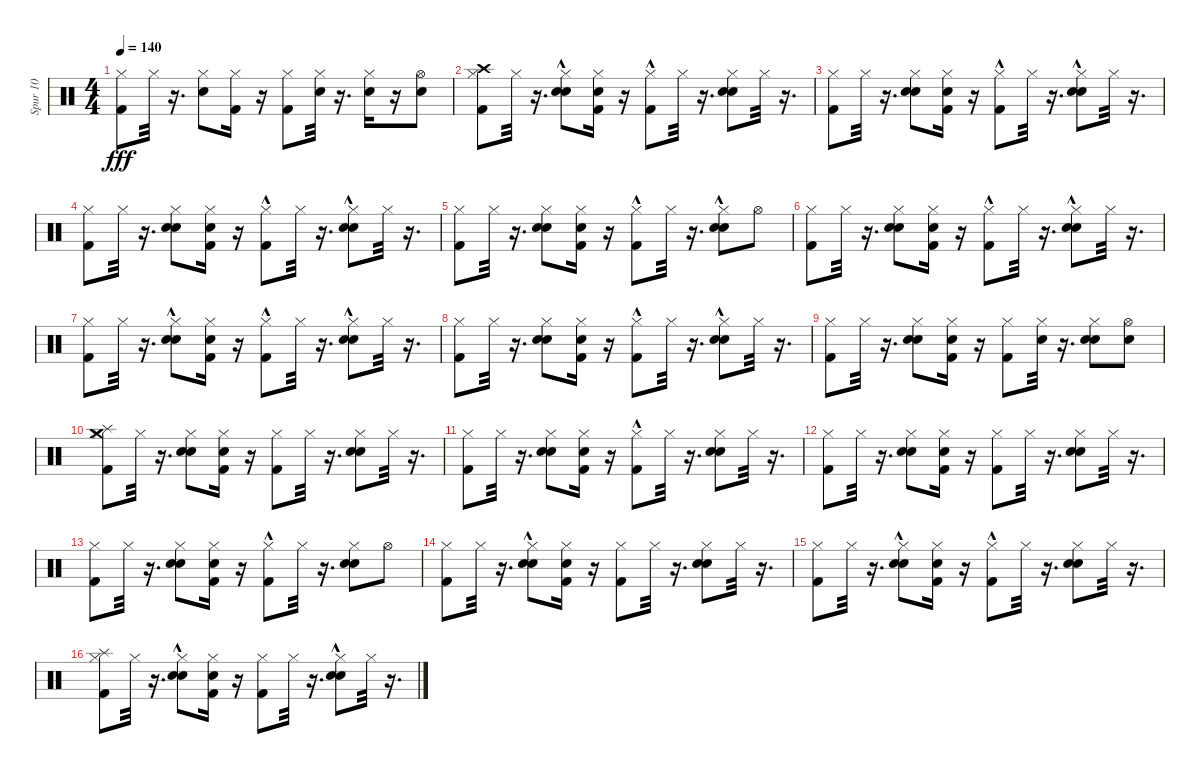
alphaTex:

\track ("Spur 10" "Spur 10") {instrument percussion}
\staff {score}
\articulation defaults
\ts (4 4)
\tempo 140
\clef neutral
\ks c
("Kick (hit) 2" "Hi-Hat (closed)").8{dy fff} "Hi-Hat (closed)".32 r.16{d} ("Snare (hit) 2" "Hi-Hat (closed)").8 ("Kick (hit) 2" "Hi-Hat (closed)").16 r.16 ("Kick (hit) 2" "Hi-Hat (closed)").8 ("Snare (hit) 2" "Hi-Hat (closed)").32 r.16{d} ("Snare (hit) 2" "Hi-Hat (closed)").16 r.16 ("Snare (hit) 2" "Hi-Hat (open)").8 |
("Kick (hit) 2" "Crash high (hit)" "Hi-Hat (closed)").8 "Hi-Hat (closed)".32 r.16{d} ("Snare (hit) 2"{hac} "Hand Clap (hit)" "Hi-Hat (closed)").8 ("Kick (hit) 2" "Hand Clap (hit)" "Hi-Hat (closed)").16 r.16 ("Kick (hit) 2"{hac} "Hi-Hat (closed)").8 "Hi-Hat (closed)".32 r.16{d} ("Hand Clap (hit)" "Snare (hit) 2" "Hi-Hat (closed)").8 "Hi-Hat (closed)".32 r.16{d} |
("Kick (hit) 2" "Hi-Hat (closed)").8 "Hi-Hat (closed)".32 r.16{d} ("Hand Clap (hit)" "Snare (hit) 2" "Hi-Hat (closed)").8 ("Hand Clap (hit)" "Kick (hit) 2" "Hi-Hat (closed)").16 r.16 ("Kick (hit) 2"{hac} "Hi-Hat (closed)").8 "Hi-Hat (closed)".32 r.16{d} ("Snare (hit) 2" "Hand Clap (hit)"{hac} "Hi-Hat (closed)").8 "Hi-Hat (closed)".32 r.16{d} |
("Kick (hit) 2" "Hi-Hat (closed)").8 "Hi-Hat (closed)".32 r.16{d} ("Snare (hit) 2" "Hand Clap (hit)" "Hi-Hat (closed)").8 ("Hand Clap (hit)" "Kick (hit) 2" "Hi-Hat (closed)").16 r.16 ("Kick (hit) 2"{hac} "Hi-Hat (closed)").8 "Hi-Hat (closed)".32 r.16{d} ("Snare (hit) 2" "Hand Clap (hit)"{hac} "Hi-Hat (closed)").8 "Hi-Hat (closed)".32 r.16{d} |
("Kick (hit) 2" "Hi-Hat (closed)").8 "Hi-Hat (closed)".32 r.16{d} ("Hand Clap (hit)" "Snare (hit) 2" "Hi-Hat (closed)").8 ("Hand Clap (hit)" "Kick (hit) 2" "Hi-Hat (closed)").16 r.16 ("Kick (hit) 2"{hac} "Hi-Hat (closed)").8 "Hi-Hat (closed)".32 r.16{d} ("Snare (hit) 2" "Hand Clap (hit)"{hac} "Hi-Hat (closed)").8 "Hi-Hat (open)".8 |
("Kick (hit) 2" "Hi-Hat (closed)").8 "Hi-Hat (closed)".32 r.16{d} ("Snare (hit) 2" "Hand Clap (hit)" "Hi-Hat (closed)").8 ("Kick (hit) 2" "Hand Clap (hit)" "Hi-Hat (closed)").16 r.16 ("Kick (hit) 2"{hac} "Hi-Hat (closed)").8 "Hi-Hat (closed)".32 r.16{d} ("Snare (hit) 2" "Hand Clap (hit)"{hac} "Hi-Hat (closed)").8 "Hi-Hat (closed)".32 r.16{d} |
("Kick (hit) 2" "Hi-Hat (closed)").8 "Hi-Hat (closed)".32 r.16{d} ("Hand Clap (hit)" "Snare (hit) 2"{hac} "Hi-Hat (closed)").8 ("Hand Clap (hit)" "Kick (hit) 2" "Hi-Hat (closed)").16 r.16 ("Kick (hit) 2"{hac} "Hi-Hat (closed)").8 "Hi-Hat (closed)".32 r.16{d} ("Snare (hit) 2" "Hand Clap (hit)"{hac} "Hi-Hat (closed)").8 "Hi-Hat (closed)".32 r.16{d} |
("Kick (hit) 2" "Hi-Hat (closed)").8 "Hi-Hat (closed)".32 r.16{d} ("Snare (hit) 2" "Hand Clap (hit)" "Hi-Hat (closed)").8 ("Kick (hit) 2" "Hand Clap (hit)" "Hi-Hat (closed)").16 r.16 ("Kick (hit) 2"{hac} "Hi-Hat (closed)").8 "Hi-Hat (closed)".32 r.16{d} ("Snare (hit) 2" "Hand Clap (hit)"{hac} "Hi-Hat (closed)").8 "Hi-Hat (closed)".32 r.16{d} |
("Kick (hit) 2" "Hi-Hat (closed)").8 "Hi-Hat (closed)".32 r.16{d} ("Hand Clap (hit)" "Snare (hit) 2" "Hi-Hat (closed)").8 ("Hand Clap (hit)" "Kick (hit) 2" "Hi-Hat (closed)").16 r.16 ("Kick (hit) 2" "Hi-Hat (closed)").8 ("Snare (hit) 2" "Hi-Hat (closed)").32 r.16{d} ("Hand Clap (hit)" "Snare (hit) 2" "Hi-Hat (closed)").8 ("Snare (hit) 2" "Hi-Hat (open)").8 |
("Kick (hit) 2" "Crash medium (hit)" "Splash (hit)" "Hi-Hat (closed)").8 "Hi-Hat (closed)".32 r.16{d} ("Snare (hit) 2" "Hand Clap (hit)" "Hi-Hat (closed)").8 ("Hand Clap (hit)" "Kick (hit) 2" "Hi-Hat (closed)").16 r.16 ("Kick (hit) 2" "Hi-Hat (closed)").8 "Hi-Hat (closed)".32 r.16{d} ("Hand Clap (hit)" "Snare (hit) 2" "Hi-Hat (closed)").8 "Hi-Hat (closed)".32 r.16{d} |
("Kick (hit) 2" "Hi-Hat (closed)").8 "Hi-Hat (closed)".32 r.16{d} ("Hand Clap (hit)" "Snare (hit) 2" "Hi-Hat (closed)").8 ("Hand Clap (hit)" "Kick (hit) 2" "Hi-Hat (closed)").16 r.16 ("Kick (hit) 2"{hac} "Hi-Hat (closed)").8 "Hi-Hat (closed)".32 r.16{d} ("Snare (hit) 2" "Hand Clap (hit)" "Hi-Hat (closed)").8 "Hi-Hat (closed)".32 r.16{d} |
("Kick (hit) 2" "Hi-Hat (closed)").8 "Hi-Hat (closed)".32 r.16{d} ("Hand Clap (hit)" "Snare (hit) 2" "Hi-Hat (closed)").8 ("Hand Clap (hit)" "Kick (hit) 2" "Hi-Hat (closed)").16 r.16 ("Kick (hit) 2" "Hi-Hat (closed)").8 "Hi-Hat (closed)".32 r.16{d} ("Hand Clap (hit)" "Snare (hit) 2" "Hi-Hat (closed)").8 "Hi-Hat (closed)".32 r.16{d} |
("Kick (hit) 2" "Hi-Hat (closed)").8 "Hi-Hat (closed)".32 r.16{d} ("Hand Clap (hit)" "Snare (hit) 2" "Hi-Hat (closed)").8 ("Hand Clap (hit)" "Kick (hit) 2" "Hi-Hat (closed)").16 r.16 ("Kick (hit) 2"{hac} "Hi-Hat (closed)").8 "Hi-Hat (closed)".32 r.16{d} ("Snare (hit) 2" "Hand Clap (hit)" "Hi-Hat (closed)").8 "Hi-Hat (open)".8 |
("Kick (hit) 2" "Hi-Hat (closed)").8 "Hi-Hat (closed)".32 r.16{d} ("Hand Clap (hit)" "Snare (hit) 2"{hac} "Hi-Hat (closed)").8 ("Hand Clap (hit)" "Kick (hit) 2" "Hi-Hat (closed)").16 r.16 ("Kick (hit) 2" "Hi-Hat (closed)").8 "Hi-Hat (closed)".32 r.16{d} ("Hand Clap (hit)" "Snare (hit) 2" "Hi-Hat (closed)").8 "Hi-Hat (closed)".32 r.16{d} |
("Kick (hit) 2" "Hi-Hat (closed)").8 "Hi-Hat (closed)".32 r.16{d} ("Hand Clap (hit)" "Snare (hit) 2"{hac} "Hi-Hat (closed)").8 ("Hand Clap (hit)" "Kick (hit) 2" "Hi-Hat (closed)").16 r.16 ("Kick (hit) 2"{hac} "Hi-Hat (closed)").8 "Hi-Hat (closed)".32 r.16{d} ("Snare (hit) 2" "Hand Clap (hit)" "Hi-Hat (closed)").8 "Hi-Hat (closed)".32 r.16{d} |
("Splash (hit)" "Kick (hit) 2" "Hi-Hat (closed)").8 "Hi-Hat (closed)".32 r.16{d} ("Snare (hit) 2"{hac} "Hand Clap (hit)" "Hi-Hat (closed)").8 ("Hand Clap (hit)" "Kick (hit) 2" "Hi-Hat (closed)").16 r.16 ("Kick (hit) 2" "Hi-Hat (closed)").8 "Hi-Hat (closed)".32 r.16{d} ("Hand Clap (hit)"{hac} "Snare (hit) 2"{hac} "Hi-Hat (closed)").8 "Hi-Hat (closed)".32 r.16{d}
